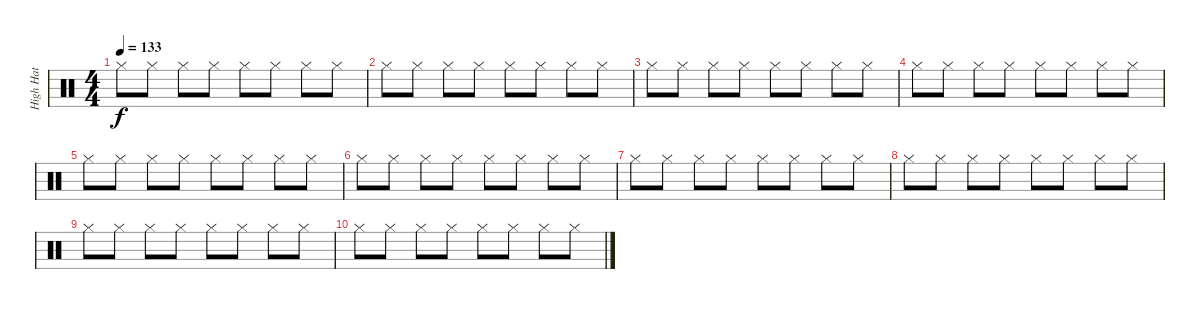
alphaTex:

\track ("High Hat" "High Hat") {instrument percussion}
\staff {score}
\articulation defaults
\ts (4 4)
\tempo 133
\clef neutral
\ks c "Hi-Hat (closed)".8{dy f} "Hi-Hat (closed)".8 "Hi-Hat (closed)".8 "Hi-Hat (closed)".8 "Hi-Hat (closed)".8 "Hi-Hat (closed)".8 "Hi-Hat (closed)".8 "Hi-Hat (closed)".8
|
"Hi-Hat (closed)".8 "Hi-Hat (closed)".8 "Hi-Hat (closed)".8 "Hi-Hat (closed)".8 "Hi-Hat (closed)".8 "Hi-Hat (closed)".8 "Hi-Hat (closed)".8 "Hi-Hat (closed)".8 |
"Hi-Hat (closed)".8 "Hi-Hat (closed)".8 "Hi-Hat (closed)".8 "Hi-Hat (closed)".8 "Hi-Hat (closed)".8 "Hi-Hat (closed)".8 "Hi-Hat (closed)".8 "Hi-Hat (closed)".8 |
"Hi-Hat (closed)".8 "Hi-Hat (closed)".8 "Hi-Hat (closed)".8 "Hi-Hat (closed)".8 "Hi-Hat (closed)".8 "Hi-Hat (closed)".8 "Hi-Hat (closed)".8 "Hi-Hat (closed)".8 |
"Hi-Hat (closed)".8 "Hi-Hat (closed)".8 "Hi-Hat (closed)".8 "Hi-Hat (closed)".8 "Hi-Hat (closed)".8 "Hi-Hat (closed)".8 "Hi-Hat (closed)".8 "Hi-Hat (closed)".8 |
"Hi-Hat (closed)".8 "Hi-Hat (closed)".8 "Hi-Hat (closed)".8 "Hi-Hat (closed)".8 "Hi-Hat (closed)".8 "Hi-Hat (closed)".8 "Hi-Hat (closed)".8 "Hi-Hat (closed)".8 |
"Hi-Hat (closed)".8 "Hi-Hat (closed)".8 "Hi-Hat (closed)".8 "Hi-Hat (closed)".8 "Hi-Hat (closed)".8 "Hi-Hat (closed)".8 "Hi-Hat (closed)".8 "Hi-Hat (closed)".8 |
"Hi-Hat (closed)".8 "Hi-Hat (closed)".8 "Hi-Hat (closed)".8 "Hi-Hat (closed)".8 "Hi-Hat (closed)".8 "Hi-Hat (closed)".8 "Hi-Hat (closed)".8 "Hi-Hat (closed)".8 |
"Hi-Hat (closed)".8 "Hi-Hat (closed)".8 "Hi-Hat (closed)".8 "Hi-Hat (closed)".8 "Hi-Hat (closed)".8 "Hi-Hat (closed)".8 "Hi-Hat (closed)".8 "Hi-Hat (closed)".8 |
"Hi-Hat (closed)".8 "Hi-Hat (closed)".8 "Hi-Hat (closed)".8 "Hi-Hat (closed)".8 "Hi-Hat (closed)".8 "Hi-Hat (closed)".8 "Hi-Hat (closed)".8 "Hi-Hat (closed)".8
